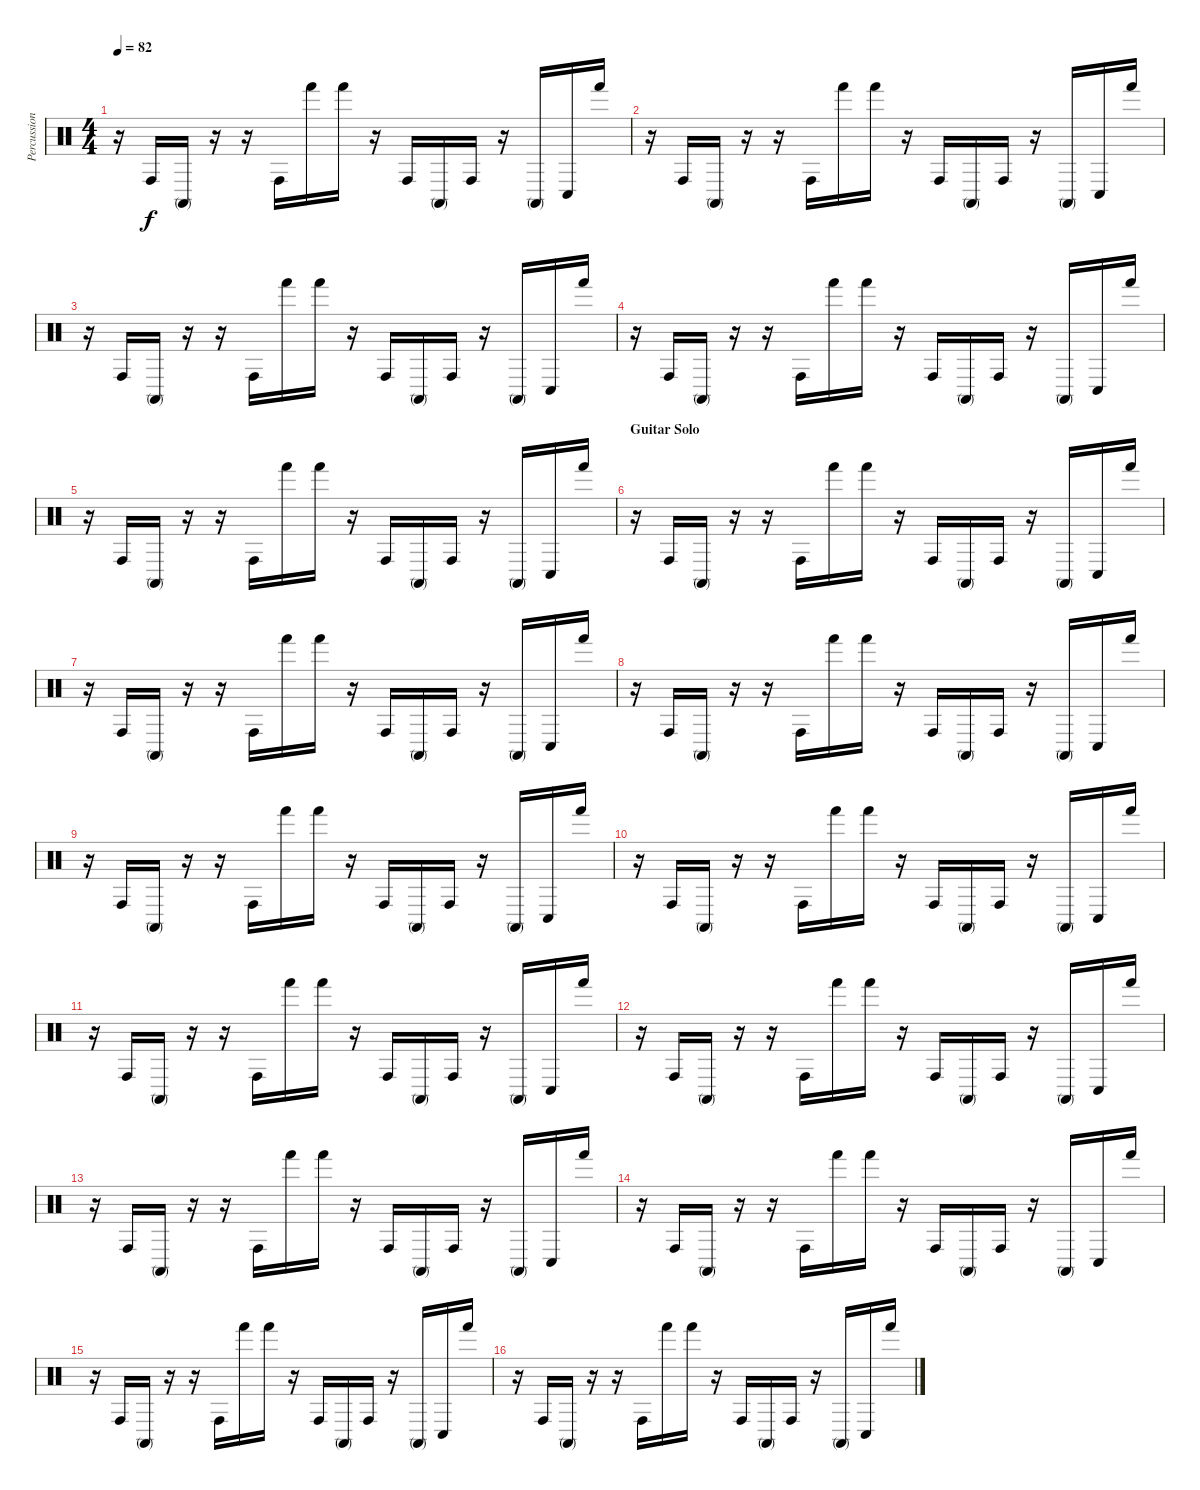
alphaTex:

\track ("Percussion" "Percussion") {instrument percussion}
\staff {score}
\articulation defaults
\ts (4 4)
\tempo 82
\clef neutral
\ks c
r.16{dy f} "Conga high (hit)".16 "Conga high (mute)".16 r.16 r.16 "Conga high (hit)".16 "Hand (hit)".16 "Hand (hit)".16 r.16 "Conga high (hit)".16 "Conga high (mute)".16 "Conga high (hit)".16 r.16 "Conga high (mute)".16 "Conga low (hit)".16 "Hand (hit)".16 |
r.16 "Conga high (hit)".16 "Conga high (mute)".16 r.16 r.16 "Conga high (hit)".16 "Hand (hit)".16 "Hand (hit)".16 r.16 "Conga high (hit)".16 "Conga high (mute)".16 "Conga high (hit)".16 r.16 "Conga high (mute)".16 "Conga low (hit)".16 "Hand (hit)".16 |
r.16 "Conga high (hit)".16 "Conga high (mute)".16 r.16 r.16 "Conga high (hit)".16 "Hand (hit)".16 "Hand (hit)".16 r.16 "Conga high (hit)".16 "Conga high (mute)".16 "Conga high (hit)".16 r.16 "Conga high (mute)".16 "Conga low (hit)".16 "Hand (hit)".16 |
r.16 "Conga high (hit)".16 "Conga high (mute)".16 r.16 r.16 "Conga high (hit)".16 "Hand (hit)".16 "Hand (hit)".16 r.16 "Conga high (hit)".16 "Conga high (mute)".16 "Conga high (hit)".16 r.16 "Conga high (mute)".16 "Conga low (hit)".16 "Hand (hit)".16 |
r.16 "Conga high (hit)".16 "Conga high (mute)".16 r.16 r.16 "Conga high (hit)".16 "Hand (hit)".16 "Hand (hit)".16 r.16 "Conga high (hit)".16 "Conga high (mute)".16 "Conga high (hit)".16 r.16 "Conga high (mute)".16 "Conga low (hit)".16 "Hand (hit)".16 |
\section ("" "Guitar Solo")
r.16 "Conga high (hit)".16 "Conga high (mute)".16 r.16 r.16 "Conga high (hit)".16 "Hand (hit)".16 "Hand (hit)".16 r.16 "Conga high (hit)".16 "Conga high (mute)".16 "Conga high (hit)".16 r.16 "Conga high (mute)".16 "Conga low (hit)".16 "Hand (hit)".16 |
r.16 "Conga high (hit)".16 "Conga high (mute)".16 r.16 r.16 "Conga high (hit)".16 "Hand (hit)".16 "Hand (hit)".16 r.16 "Conga high (hit)".16 "Conga high (mute)".16 "Conga high (hit)".16 r.16 "Conga high (mute)".16 "Conga low (hit)".16 "Hand (hit)".16 |
r.16 "Conga high (hit)".16 "Conga high (mute)".16 r.16 r.16 "Conga high (hit)".16 "Hand (hit)".16 "Hand (hit)".16 r.16 "Conga high (hit)".16 "Conga high (mute)".16 "Conga high (hit)".16 r.16 "Conga high (mute)".16 "Conga low (hit)".16 "Hand (hit)".16 |
r.16 "Conga high (hit)".16 "Conga high (mute)".16 r.16 r.16 "Conga high (hit)".16 "Hand (hit)".16 "Hand (hit)".16 r.16 "Conga high (hit)".16 "Conga high (mute)".16 "Conga high (hit)".16 r.16 "Conga high (mute)".16 "Conga low (hit)".16 "Hand (hit)".16 |
r.16 "Conga high (hit)".16 "Conga high (mute)".16 r.16 r.16 "Conga high (hit)".16 "Hand (hit)".16 "Hand (hit)".16 r.16 "Conga high (hit)".16 "Conga high (mute)".16 "Conga high (hit)".16 r.16 "Conga high (mute)".16 "Conga low (hit)".16 "Hand (hit)".16 |
r.16 "Conga high (hit)".16 "Conga high (mute)".16 r.16 r.16 "Conga high (hit)".16 "Hand (hit)".16 "Hand (hit)".16 r.16 "Conga high (hit)".16 "Conga high (mute)".16 "Conga high (hit)".16 r.16 "Conga high (mute)".16 "Conga low (hit)".16 "Hand (hit)".16 |
r.16 "Conga high (hit)".16 "Conga high (mute)".16 r.16 r.16 "Conga high (hit)".16 "Hand (hit)".16 "Hand (hit)".16 r.16 "Conga high (hit)".16 "Conga high (mute)".16 "Conga high (hit)".16 r.16 "Conga high (mute)".16 "Conga low (hit)".16 "Hand (hit)".16 |
r.16 "Conga high (hit)".16 "Conga high (mute)".16 r.16 r.16 "Conga high (hit)".16 "Hand (hit)".16 "Hand (hit)".16 r.16 "Conga high (hit)".16 "Conga high (mute)".16 "Conga high (hit)".16 r.16 "Conga high (mute)".16 "Conga low (hit)".16 "Hand (hit)".16 |
r.16 "Conga high (hit)".16 "Conga high (mute)".16 r.16 r.16 "Conga high (hit)".16 "Hand (hit)".16 "Hand (hit)".16 r.16 "Conga high (hit)".16 "Conga high (mute)".16 "Conga high (hit)".16 r.16 "Conga high (mute)".16 "Conga low (hit)".16 "Hand (hit)".16 |
r.16 "Conga high (hit)".16 "Conga high (mute)".16 r.16 r.16 "Conga high (hit)".16 "Hand (hit)".16 "Hand (hit)".16 r.16 "Conga high (hit)".16 "Conga high (mute)".16 "Conga high (hit)".16 r.16 "Conga high (mute)".16 "Conga low (hit)".16 "Hand (hit)".16 |
r.16 "Conga high (hit)".16 "Conga high (mute)".16 r.16 r.16 "Conga high (hit)".16 "Hand (hit)".16 "Hand (hit)".16 r.16 "Conga high (hit)".16 "Conga high (mute)".16 "Conga high (hit)".16 r.16 "Conga high (mute)".16 "Conga low (hit)".16 "Hand (hit)".16
